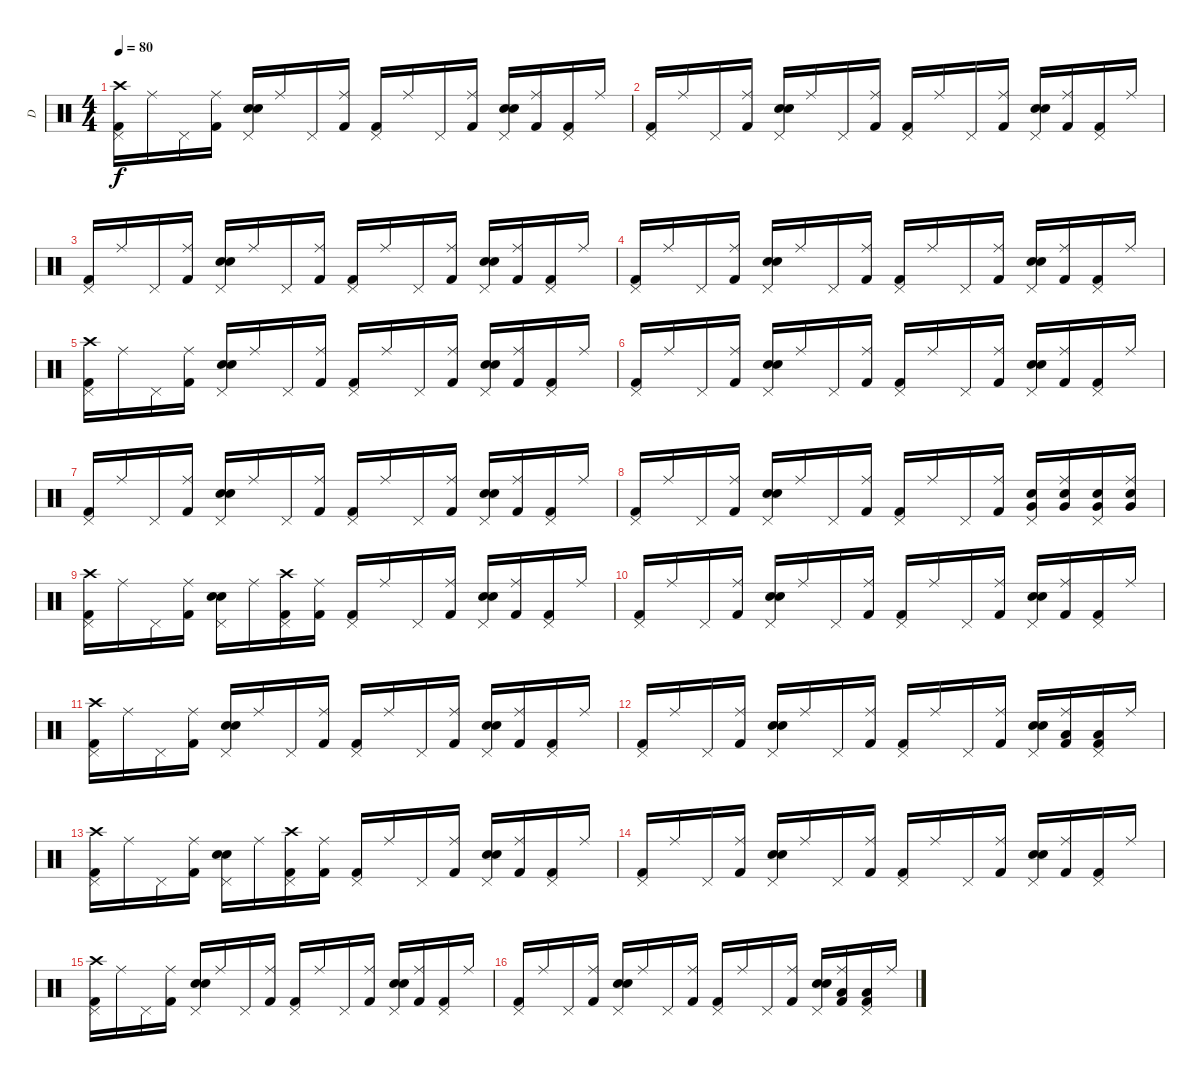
\track ("D" "D") {instrument percussion}
\staff {score}
\articulation defaults
\ts (4 4)
\tempo 80
\clef neutral
\ks c
("Crash high (hit)" "Kick (hit) 2" "Pedal Hi-Hat (hit)").16{dy f} "Ride (middle)".16 "Pedal Hi-Hat (hit)".16 ("Kick (hit) 2" "Ride (middle)").16 ("Electric Snare (hit)" "Electric Snare (hit)" "Pedal Hi-Hat (hit)").16 "Ride (middle)".16 "Pedal Hi-Hat (hit)".16 ("Kick (hit) 2" "Ride (middle)").16 ("Kick (hit) 2" "Pedal Hi-Hat (hit)").16 "Ride (middle)".16 "Pedal Hi-Hat (hit)".16 ("Kick (hit) 2" "Ride (middle)").16 ("Electric Snare (hit)" "Electric Snare (hit)" "Pedal Hi-Hat (hit)").16 ("Kick (hit) 2" "Ride (middle)").16 ("Kick (hit) 2" "Pedal Hi-Hat (hit)").16 "Ride (middle)".16 |
("Kick (hit) 2" "Pedal Hi-Hat (hit)").16 "Ride (middle)".16 "Pedal Hi-Hat (hit)".16 ("Kick (hit) 2" "Ride (middle)").16 ("Electric Snare (hit)" "Electric Snare (hit)" "Pedal Hi-Hat (hit)").16 "Ride (middle)".16 "Pedal Hi-Hat (hit)".16 ("Kick (hit) 2" "Ride (middle)").16 ("Kick (hit) 2" "Pedal Hi-Hat (hit)").16 "Ride (middle)".16 "Pedal Hi-Hat (hit)".16 ("Kick (hit) 2" "Ride (middle)").16 ("Electric Snare (hit)" "Electric Snare (hit)" "Pedal Hi-Hat (hit)").16 ("Kick (hit) 2" "Ride (middle)").16 ("Kick (hit) 2" "Pedal Hi-Hat (hit)").16 "Ride (middle)".16 |
("Kick (hit) 2" "Pedal Hi-Hat (hit)").16 "Ride (middle)".16 "Pedal Hi-Hat (hit)".16 ("Kick (hit) 2" "Ride (middle)").16 ("Electric Snare (hit)" "Electric Snare (hit)" "Pedal Hi-Hat (hit)").16 "Ride (middle)".16 "Pedal Hi-Hat (hit)".16 ("Kick (hit) 2" "Ride (middle)").16 ("Kick (hit) 2" "Pedal Hi-Hat (hit)").16 "Ride (middle)".16 "Pedal Hi-Hat (hit)".16 ("Kick (hit) 2" "Ride (middle)").16 ("Electric Snare (hit)" "Electric Snare (hit)" "Pedal Hi-Hat (hit)").16 ("Kick (hit) 2" "Ride (middle)").16 ("Kick (hit) 2" "Pedal Hi-Hat (hit)").16 "Ride (middle)".16 |
("Kick (hit) 2" "Pedal Hi-Hat (hit)").16 "Ride (middle)".16 "Pedal Hi-Hat (hit)".16 ("Kick (hit) 2" "Ride (middle)").16 ("Electric Snare (hit)" "Electric Snare (hit)" "Pedal Hi-Hat (hit)").16 "Ride (middle)".16 "Pedal Hi-Hat (hit)".16 ("Kick (hit) 2" "Ride (middle)").16 ("Kick (hit) 2" "Pedal Hi-Hat (hit)").16 "Ride (middle)".16 "Pedal Hi-Hat (hit)".16 ("Kick (hit) 2" "Ride (middle)").16 ("Electric Snare (hit)" "Electric Snare (hit)" "Pedal Hi-Hat (hit)").16 ("Kick (hit) 2" "Ride (middle)").16 ("Kick (hit) 2" "Pedal Hi-Hat (hit)").16 "Ride (middle)".16 |
("Crash high (hit)" "Kick (hit) 2" "Pedal Hi-Hat (hit)").16 "Ride (middle)".16 "Pedal Hi-Hat (hit)".16 ("Kick (hit) 2" "Ride (middle)").16 ("Electric Snare (hit)" "Electric Snare (hit)" "Pedal Hi-Hat (hit)").16 "Ride (middle)".16 "Pedal Hi-Hat (hit)".16 ("Kick (hit) 2" "Ride (middle)").16 ("Kick (hit) 2" "Pedal Hi-Hat (hit)").16 "Ride (middle)".16 "Pedal Hi-Hat (hit)".16 ("Kick (hit) 2" "Ride (middle)").16 ("Electric Snare (hit)" "Electric Snare (hit)" "Pedal Hi-Hat (hit)").16 ("Kick (hit) 2" "Ride (middle)").16 ("Kick (hit) 2" "Pedal Hi-Hat (hit)").16 "Ride (middle)".16 |
("Kick (hit) 2" "Pedal Hi-Hat (hit)").16 "Ride (middle)".16 "Pedal Hi-Hat (hit)".16 ("Kick (hit) 2" "Ride (middle)").16 ("Electric Snare (hit)" "Electric Snare (hit)" "Pedal Hi-Hat (hit)").16 "Ride (middle)".16 "Pedal Hi-Hat (hit)".16 ("Kick (hit) 2" "Ride (middle)").16 ("Kick (hit) 2" "Pedal Hi-Hat (hit)").16 "Ride (middle)".16 "Pedal Hi-Hat (hit)".16 ("Kick (hit) 2" "Ride (middle)").16 ("Electric Snare (hit)" "Electric Snare (hit)" "Pedal Hi-Hat (hit)").16 ("Kick (hit) 2" "Ride (middle)").16 ("Kick (hit) 2" "Pedal Hi-Hat (hit)").16 "Ride (middle)".16 |
("Kick (hit) 2" "Pedal Hi-Hat (hit)").16 "Ride (middle)".16 "Pedal Hi-Hat (hit)".16 ("Kick (hit) 2" "Ride (middle)").16 ("Electric Snare (hit)" "Electric Snare (hit)" "Pedal Hi-Hat (hit)").16 "Ride (middle)".16 "Pedal Hi-Hat (hit)".16 ("Kick (hit) 2" "Ride (middle)").16 ("Kick (hit) 2" "Pedal Hi-Hat (hit)").16 "Ride (middle)".16 "Pedal Hi-Hat (hit)".16 ("Kick (hit) 2" "Ride (middle)").16 ("Electric Snare (hit)" "Electric Snare (hit)" "Pedal Hi-Hat (hit)").16 ("Kick (hit) 2" "Ride (middle)").16 ("Kick (hit) 2" "Pedal Hi-Hat (hit)").16 "Ride (middle)".16 |
("Kick (hit) 2" "Pedal Hi-Hat (hit)").16 "Ride (middle)".16 "Pedal Hi-Hat (hit)".16 ("Kick (hit) 2" "Ride (middle)").16 ("Electric Snare (hit)" "Electric Snare (hit)" "Pedal Hi-Hat (hit)").16 "Ride (middle)".16 "Pedal Hi-Hat (hit)".16 ("Kick (hit) 2" "Ride (middle)").16 ("Kick (hit) 2" "Pedal Hi-Hat (hit)").16 "Ride (middle)".16 "Pedal Hi-Hat (hit)".16 ("Kick (hit) 2" "Ride (middle)").16 ("Very Low Tom (hit)" "Electric Snare (hit)" "Pedal Hi-Hat (hit)").16 ("Very Low Tom (hit)" "Electric Snare (hit)" "Ride (middle)").16 ("Very Low Tom (hit)" "Electric Snare (hit)" "Pedal Hi-Hat (hit)").16 ("Very Low Tom (hit)" "Electric Snare (hit)" "Ride (middle)").16 |
("Crash high (hit)" "Kick (hit) 2" "Pedal Hi-Hat (hit)").16 "Ride (middle)".16 "Pedal Hi-Hat (hit)".16 ("Kick (hit) 2" "Ride (middle)").16 ("Electric Snare (hit)" "Electric Snare (hit)" "Pedal Hi-Hat (hit)").16 "Ride (middle)".16 ("Crash high (hit)" "Kick (hit) 2" "Pedal Hi-Hat (hit)").16 ("Kick (hit) 2" "Ride (middle)").16 ("Kick (hit) 2" "Pedal Hi-Hat (hit)").16 "Ride (middle)".16 "Pedal Hi-Hat (hit)".16 ("Kick (hit) 2" "Ride (middle)").16 ("Electric Snare (hit)" "Electric Snare (hit)" "Pedal Hi-Hat (hit)").16 ("Kick (hit) 2" "Ride (middle)").16 ("Kick (hit) 2" "Pedal Hi-Hat (hit)").16 "Ride (middle)".16 |
("Kick (hit) 2" "Pedal Hi-Hat (hit)").16 "Ride (middle)".16 "Pedal Hi-Hat (hit)".16 ("Kick (hit) 2" "Ride (middle)").16 ("Electric Snare (hit)" "Electric Snare (hit)" "Pedal Hi-Hat (hit)").16 "Ride (middle)".16 "Pedal Hi-Hat (hit)".16 ("Kick (hit) 2" "Ride (middle)").16 ("Kick (hit) 2" "Pedal Hi-Hat (hit)").16 "Ride (middle)".16 "Pedal Hi-Hat (hit)".16 ("Kick (hit) 2" "Ride (middle)").16 ("Electric Snare (hit)" "Electric Snare (hit)" "Pedal Hi-Hat (hit)").16 ("Kick (hit) 2" "Ride (middle)").16 ("Kick (hit) 2" "Pedal Hi-Hat (hit)").16 "Ride (middle)".16 |
("Crash high (hit)" "Kick (hit) 2" "Pedal Hi-Hat (hit)").16 "Ride (middle)".16 "Pedal Hi-Hat (hit)".16 ("Kick (hit) 2" "Ride (middle)").16 ("Electric Snare (hit)" "Electric Snare (hit)" "Pedal Hi-Hat (hit)").16 "Ride (middle)".16 "Pedal Hi-Hat (hit)".16 ("Kick (hit) 2" "Ride (middle)").16 ("Kick (hit) 2" "Pedal Hi-Hat (hit)").16 "Ride (middle)".16 "Pedal Hi-Hat (hit)".16 ("Kick (hit) 2" "Ride (middle)").16 ("Electric Snare (hit)" "Electric Snare (hit)" "Pedal Hi-Hat (hit)").16 ("Kick (hit) 2" "Ride (middle)").16 ("Kick (hit) 2" "Pedal Hi-Hat (hit)").16 "Ride (middle)".16 |
("Kick (hit) 2" "Pedal Hi-Hat (hit)").16 "Ride (middle)".16 "Pedal Hi-Hat (hit)".16 ("Kick (hit) 2" "Ride (middle)").16 ("Electric Snare (hit)" "Electric Snare (hit)" "Pedal Hi-Hat (hit)").16 "Ride (middle)".16 "Pedal Hi-Hat (hit)".16 ("Kick (hit) 2" "Ride (middle)").16 ("Kick (hit) 2" "Pedal Hi-Hat (hit)").16 "Ride (middle)".16 "Pedal Hi-Hat (hit)".16 ("Kick (hit) 2" "Ride (middle)").16 ("Electric Snare (hit)" "Electric Snare (hit)" "Pedal Hi-Hat (hit)").16 ("Low Tom (hit)" "Kick (hit) 2" "Ride (middle)").16 ("Low Tom (hit)" "Kick (hit) 2" "Pedal Hi-Hat (hit)").16 "Ride (middle)".16 |
("Crash high (hit)" "Kick (hit) 2" "Pedal Hi-Hat (hit)").16 "Ride (middle)".16 "Pedal Hi-Hat (hit)".16 ("Kick (hit) 2" "Ride (middle)").16 ("Electric Snare (hit)" "Electric Snare (hit)" "Pedal Hi-Hat (hit)").16 "Ride (middle)".16 ("Crash high (hit)" "Kick (hit) 2" "Pedal Hi-Hat (hit)").16 ("Kick (hit) 2" "Ride (middle)").16 ("Kick (hit) 2" "Pedal Hi-Hat (hit)").16 "Ride (middle)".16 "Pedal Hi-Hat (hit)".16 ("Kick (hit) 2" "Ride (middle)").16 ("Electric Snare (hit)" "Electric Snare (hit)" "Pedal Hi-Hat (hit)").16 ("Kick (hit) 2" "Ride (middle)").16 ("Kick (hit) 2" "Pedal Hi-Hat (hit)").16 "Ride (middle)".16 |
("Kick (hit) 2" "Pedal Hi-Hat (hit)").16 "Ride (middle)".16 "Pedal Hi-Hat (hit)".16 ("Kick (hit) 2" "Ride (middle)").16 ("Electric Snare (hit)" "Electric Snare (hit)" "Pedal Hi-Hat (hit)").16 "Ride (middle)".16 "Pedal Hi-Hat (hit)".16 ("Kick (hit) 2" "Ride (middle)").16 ("Kick (hit) 2" "Pedal Hi-Hat (hit)").16 "Ride (middle)".16 "Pedal Hi-Hat (hit)".16 ("Kick (hit) 2" "Ride (middle)").16 ("Electric Snare (hit)" "Electric Snare (hit)" "Pedal Hi-Hat (hit)").16 ("Kick (hit) 2" "Ride (middle)").16 ("Kick (hit) 2" "Pedal Hi-Hat (hit)").16 "Ride (middle)".16 |
("Crash high (hit)" "Kick (hit) 2" "Pedal Hi-Hat (hit)").16 "Ride (middle)".16 "Pedal Hi-Hat (hit)".16 ("Kick (hit) 2" "Ride (middle)").16 ("Electric Snare (hit)" "Electric Snare (hit)" "Pedal Hi-Hat (hit)").16 "Ride (middle)".16 "Pedal Hi-Hat (hit)".16 ("Kick (hit) 2" "Ride (middle)").16 ("Kick (hit) 2" "Pedal Hi-Hat (hit)").16 "Ride (middle)".16 "Pedal Hi-Hat (hit)".16 ("Kick (hit) 2" "Ride (middle)").16 ("Electric Snare (hit)" "Electric Snare (hit)" "Pedal Hi-Hat (hit)").16 ("Kick (hit) 2" "Ride (middle)").16 ("Kick (hit) 2" "Pedal Hi-Hat (hit)").16 "Ride (middle)".16 |
("Kick (hit) 2" "Pedal Hi-Hat (hit)").16 "Ride (middle)".16 "Pedal Hi-Hat (hit)".16 ("Kick (hit) 2" "Ride (middle)").16 ("Electric Snare (hit)" "Electric Snare (hit)" "Pedal Hi-Hat (hit)").16 "Ride (middle)".16 "Pedal Hi-Hat (hit)".16 ("Kick (hit) 2" "Ride (middle)").16 ("Kick (hit) 2" "Pedal Hi-Hat (hit)").16 "Ride (middle)".16 "Pedal Hi-Hat (hit)".16 ("Kick (hit) 2" "Ride (middle)").16 ("Electric Snare (hit)" "Electric Snare (hit)" "Pedal Hi-Hat (hit)").16 ("Low Tom (hit)" "Kick (hit) 2" "Ride (middle)").16 ("Low Tom (hit)" "Kick (hit) 2" "Pedal Hi-Hat (hit)").16 "Ride (middle)".16{volume 6}
